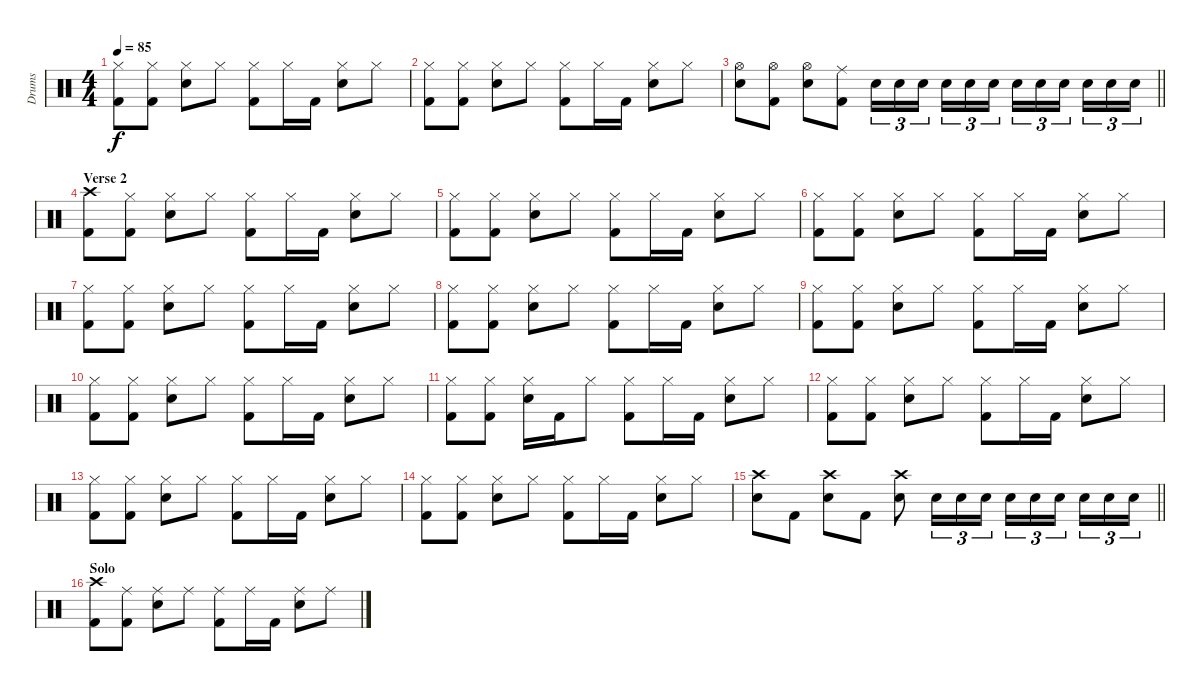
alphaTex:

\track ("Drums" "Drums") {instrument percussion}
\staff {score}
\articulation defaults
\ts (4 4)
\tempo 85
\clef neutral
\ks c
("Hi-Hat (closed)" "Kick (hit) 2").8{dy f} ("Hi-Hat (closed)" "Kick (hit) 2").8 ("Hi-Hat (closed)" "Snare (hit) 2").8 "Hi-Hat (closed)".8 ("Hi-Hat (closed)" "Kick (hit) 2").8 "Hi-Hat (closed)".16 "Kick (hit) 2".16 ("Hi-Hat (closed)" "Snare (hit) 2").8 "Hi-Hat (closed)".8 |
("Hi-Hat (closed)" "Kick (hit) 2").8 ("Hi-Hat (closed)" "Kick (hit) 2").8 ("Hi-Hat (closed)" "Snare (hit) 2").8 "Hi-Hat (closed)".8 ("Hi-Hat (closed)" "Kick (hit) 2").8 "Hi-Hat (closed)".16 "Kick (hit) 2".16 ("Hi-Hat (closed)" "Snare (hit) 2").8 "Hi-Hat (closed)".8 |
\barLineRight lightlight
("Hi-Hat (open)" "Snare (hit) 2").8 ("Hi-Hat (open)" "Kick (hit) 2").8 ("Hi-Hat (open)" "Snare (hit) 2").8 ("Ride (middle)" "Kick (hit) 2").8 "Snare (hit) 2".16{tu (3 2)} "Snare (hit) 2".16{tu (3 2)} "Snare (hit) 2".16{tu (3 2) beam splitsecondary} "Snare (hit) 2".16{tu (3 2)} "Snare (hit) 2".16{tu (3 2)} "Snare (hit) 2".16{tu (3 2)} "Snare (hit) 2".16{tu (3 2)} "Snare (hit) 2".16{tu (3 2)} "Snare (hit) 2".16{tu (3 2) beam splitsecondary} "Snare (hit) 2".16{tu (3 2)} "Snare (hit) 2".16{tu (3 2)} "Snare (hit) 2".16{tu (3 2)} |
\section ("" "Verse 2")
("Crash high (hit)" "Kick (hit) 2").8 ("Hi-Hat (closed)" "Kick (hit) 2").8 ("Hi-Hat (closed)" "Snare (hit) 2").8 "Hi-Hat (closed)".8 ("Hi-Hat (closed)" "Kick (hit) 2").8 "Hi-Hat (closed)".16 "Kick (hit) 2".16 ("Hi-Hat (closed)" "Snare (hit) 2").8 "Hi-Hat (closed)".8 |
("Hi-Hat (closed)" "Kick (hit) 2").8 ("Hi-Hat (closed)" "Kick (hit) 2").8 ("Hi-Hat (closed)" "Snare (hit) 2").8 "Hi-Hat (closed)".8 ("Hi-Hat (closed)" "Kick (hit) 2").8 "Hi-Hat (closed)".16 "Kick (hit) 2".16 ("Hi-Hat (closed)" "Snare (hit) 2").8 "Hi-Hat (closed)".8 |
("Hi-Hat (closed)" "Kick (hit) 2").8 ("Hi-Hat (closed)" "Kick (hit) 2").8 ("Hi-Hat (closed)" "Snare (hit) 2").8 "Hi-Hat (closed)".8 ("Hi-Hat (closed)" "Kick (hit) 2").8 "Hi-Hat (closed)".16 "Kick (hit) 2".16 ("Hi-Hat (closed)" "Snare (hit) 2").8 "Hi-Hat (closed)".8 |
("Hi-Hat (closed)" "Kick (hit) 2").8 ("Hi-Hat (closed)" "Kick (hit) 2").8 ("Hi-Hat (closed)" "Snare (hit) 2").8 "Hi-Hat (closed)".8 ("Hi-Hat (closed)" "Kick (hit) 2").8 "Hi-Hat (closed)".16 "Kick (hit) 2".16 ("Hi-Hat (closed)" "Snare (hit) 2").8 "Hi-Hat (closed)".8 |
("Hi-Hat (closed)" "Kick (hit) 2").8 ("Hi-Hat (closed)" "Kick (hit) 2").8 ("Hi-Hat (closed)" "Snare (hit) 2").8 "Hi-Hat (closed)".8 ("Hi-Hat (closed)" "Kick (hit) 2").8 "Hi-Hat (closed)".16 "Kick (hit) 2".16 ("Hi-Hat (closed)" "Snare (hit) 2").8 "Hi-Hat (closed)".8 |
("Hi-Hat (closed)" "Kick (hit) 2").8 ("Hi-Hat (closed)" "Kick (hit) 2").8 ("Hi-Hat (closed)" "Snare (hit) 2").8 "Hi-Hat (closed)".8 ("Hi-Hat (closed)" "Kick (hit) 2").8 "Hi-Hat (closed)".16 "Kick (hit) 2".16 ("Hi-Hat (closed)" "Snare (hit) 2").8 "Hi-Hat (closed)".8 |
("Hi-Hat (closed)" "Kick (hit) 2").8 ("Hi-Hat (closed)" "Kick (hit) 2").8 ("Hi-Hat (closed)" "Snare (hit) 2").8 "Hi-Hat (closed)".8 ("Hi-Hat (closed)" "Kick (hit) 2").8 "Hi-Hat (closed)".16 "Kick (hit) 2".16 ("Hi-Hat (closed)" "Snare (hit) 2").8 "Hi-Hat (closed)".8 |
("Hi-Hat (closed)" "Kick (hit) 2").8 ("Hi-Hat (closed)" "Kick (hit) 2").8 ("Hi-Hat (closed)" "Snare (hit) 2").16 "Kick (hit) 2".16 "Hi-Hat (closed)".8 ("Hi-Hat (closed)" "Kick (hit) 2").8 "Hi-Hat (closed)".16 "Kick (hit) 2".16 ("Hi-Hat (closed)" "Snare (hit) 2").8 "Hi-Hat (closed)".8 |
("Hi-Hat (closed)" "Kick (hit) 2").8 ("Hi-Hat (closed)" "Kick (hit) 2").8 ("Hi-Hat (closed)" "Snare (hit) 2").8 "Hi-Hat (closed)".8 ("Hi-Hat (closed)" "Kick (hit) 2").8 "Hi-Hat (closed)".16 "Kick (hit) 2".16 ("Hi-Hat (closed)" "Snare (hit) 2").8 "Hi-Hat (closed)".8 |
("Hi-Hat (closed)" "Kick (hit) 2").8 ("Hi-Hat (closed)" "Kick (hit) 2").8 ("Hi-Hat (closed)" "Snare (hit) 2").8 "Hi-Hat (closed)".8 ("Hi-Hat (closed)" "Kick (hit) 2").8 "Hi-Hat (closed)".16 "Kick (hit) 2".16 ("Hi-Hat (closed)" "Snare (hit) 2").8 "Hi-Hat (closed)".8 |
("Hi-Hat (closed)" "Kick (hit) 2").8 ("Hi-Hat (closed)" "Kick (hit) 2").8 ("Hi-Hat (closed)" "Snare (hit) 2").8 "Hi-Hat (closed)".8 ("Hi-Hat (closed)" "Kick (hit) 2").8 "Hi-Hat (closed)".16 "Kick (hit) 2".16 ("Hi-Hat (closed)" "Snare (hit) 2").8 "Hi-Hat (closed)".8 |
\barLineRight lightlight
("Crash high (hit)" "Snare (hit) 2").8 "Kick (hit) 2".8 ("Crash high (hit)" "Snare (hit) 2").8 "Kick (hit) 2".8 ("Crash high (hit)" "Snare (hit) 2").8 "Snare (hit) 2".16{tu (3 2)} "Snare (hit) 2".16{tu (3 2)} "Snare (hit) 2".16{tu (3 2)} "Snare (hit) 2".16{tu (3 2)} "Snare (hit) 2".16{tu (3 2)} "Snare (hit) 2".16{tu (3 2) beam splitsecondary} "Snare (hit) 2".16{tu (3 2)} "Snare (hit) 2".16{tu (3 2)} "Snare (hit) 2".16{tu (3 2)} |
\section ("" "Solo")
("Crash high (hit)" "Kick (hit) 2").8 ("Ride (middle)" "Kick (hit) 2").8 ("Ride (middle)" "Snare (hit) 2").8 "Ride (middle)".8 ("Ride (middle)" "Kick (hit) 2").8 "Ride (middle)".16 "Kick (hit) 2".16 ("Ride (middle)" "Snare (hit) 2").8 "Ride (middle)".8
